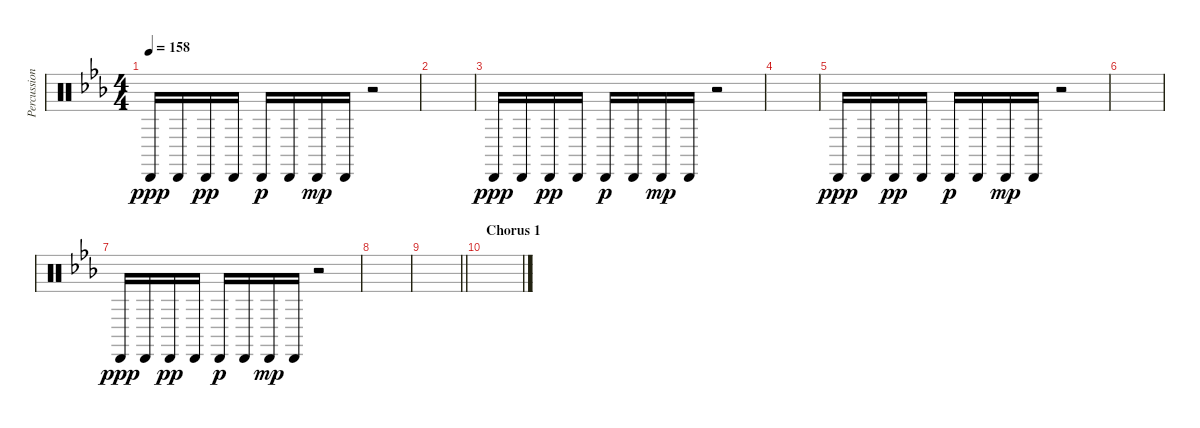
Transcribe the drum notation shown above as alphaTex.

\track ("Percussion" "Percussion") {instrument percussion}
\staff {score}
\articulation defaults
\ts (4 4)
\tempo 158
\clef neutral
\ks eb "Cabasa (hit)".16{dy ppp} "Cabasa (hit)".16 "Cabasa (hit)".16{dy pp} "Cabasa (hit)".16 "Cabasa (hit)".16{dy p} "Cabasa (hit)".16 "Cabasa (hit)".16{dy mp} "Cabasa (hit)".16
r.2 |
|
"Cabasa (hit)".16{dy ppp} "Cabasa (hit)".16 "Cabasa (hit)".16{dy pp} "Cabasa (hit)".16 "Cabasa (hit)".16{dy p} "Cabasa (hit)".16 "Cabasa (hit)".16{dy mp} "Cabasa (hit)".16 r.2 |
|
"Cabasa (hit)".16{dy ppp} "Cabasa (hit)".16 "Cabasa (hit)".16{dy pp} "Cabasa (hit)".16 "Cabasa (hit)".16{dy p} "Cabasa (hit)".16 "Cabasa (hit)".16{dy mp} "Cabasa (hit)".16 r.2 |
|
"Cabasa (hit)".16{dy ppp} "Cabasa (hit)".16 "Cabasa (hit)".16{dy pp} "Cabasa (hit)".16 "Cabasa (hit)".16{dy p} "Cabasa (hit)".16 "Cabasa (hit)".16{dy mp} "Cabasa (hit)".16 r.2 |
|
\barLineRight lightlight
|
\section ("" "Chorus 1")
